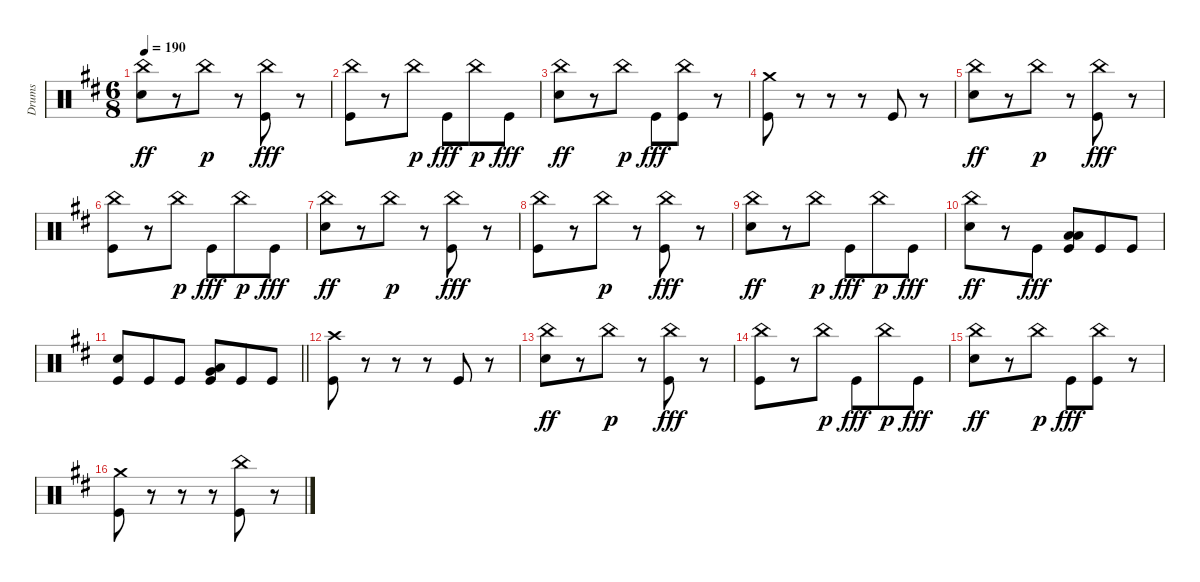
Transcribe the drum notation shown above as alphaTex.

\track ("Drums" "Drums") {instrument percussion}
\staff {score}
\articulation defaults
\ts (6 8)
\tempo 190
\clef neutral
\ks bminor
("China (hit)" "Snare (hit) 2").8{dy ff} r.8 "China (hit)".8{dy p} r.8 ("China (hit)" "Kick (hit)").8{dy fff} r.8 |
("China (hit)" "Kick (hit)").8 r.8 "China (hit)".8{dy p} "Kick (hit)".8{dy fff} "China (hit)".8{dy p} "Kick (hit)".8{dy fff} |
("China (hit)" "Snare (hit) 2").8{dy ff} r.8 "China (hit)".8{dy p} "Kick (hit)".8{dy fff} ("China (hit)" "Kick (hit)").8 r.8 |
("Crash medium (hit)" "Kick (hit)").8 r.8 r.8 r.8 "Kick (hit)".8 r.8 |
("China (hit)" "Snare (hit) 2").8{dy ff} r.8 "China (hit)".8{dy p} r.8 ("China (hit)" "Kick (hit)").8{dy fff} r.8 |
("China (hit)" "Kick (hit)").8 r.8 "China (hit)".8{dy p} "Kick (hit)".8{dy fff} "China (hit)".8{dy p} "Kick (hit)".8{dy fff} |
("China (hit)" "Snare (hit) 2").8{dy ff} r.8 "China (hit)".8{dy p} r.8 ("China (hit)" "Kick (hit)").8{dy fff} r.8 |
("China (hit)" "Kick (hit)").8 r.8 "China (hit)".8{dy p} r.8 ("China (hit)" "Kick (hit)").8{dy fff} r.8 |
("China (hit)" "Snare (hit) 2").8{dy ff} r.8 "China (hit)".8{dy p} "Kick (hit)".8{dy fff} "China (hit)".8{dy p} "Kick (hit)".8{dy fff} |
("China (hit)" "Snare (hit) 2").8{dy ff} r.8 "Kick (hit)".8{dy fff} ("Low Tom (hit)" "Low Floor Tom (hit)" "Kick (hit)").8 "Kick (hit)".8 "Kick (hit)".8 |
\barLineRight lightlight
("Snare (hit) 2" "Kick (hit)").8 "Kick (hit)".8 "Kick (hit)".8 ("Very Low Tom (hit)" "Low Floor Tom (hit)" "Kick (hit)").8 "Kick (hit)".8 "Kick (hit)".8 |
("Crash high (hit)" "Kick (hit)").8 r.8 r.8 r.8 "Kick (hit)".8 r.8 |
("China (hit)" "Snare (hit) 2").8{dy ff} r.8 "China (hit)".8{dy p} r.8 ("China (hit)" "Kick (hit)").8{dy fff} r.8 |
("China (hit)" "Kick (hit)").8 r.8 "China (hit)".8{dy p} "Kick (hit)".8{dy fff} "China (hit)".8{dy p} "Kick (hit)".8{dy fff} |
("China (hit)" "Snare (hit) 2").8{dy ff} r.8 "China (hit)".8{dy p} "Kick (hit)".8{dy fff} ("China (hit)" "Kick (hit)").8 r.8 |
("Crash medium (hit)" "Kick (hit)").8 r.8 r.8 r.8 ("China (hit)" "Kick (hit)").8 r.8
